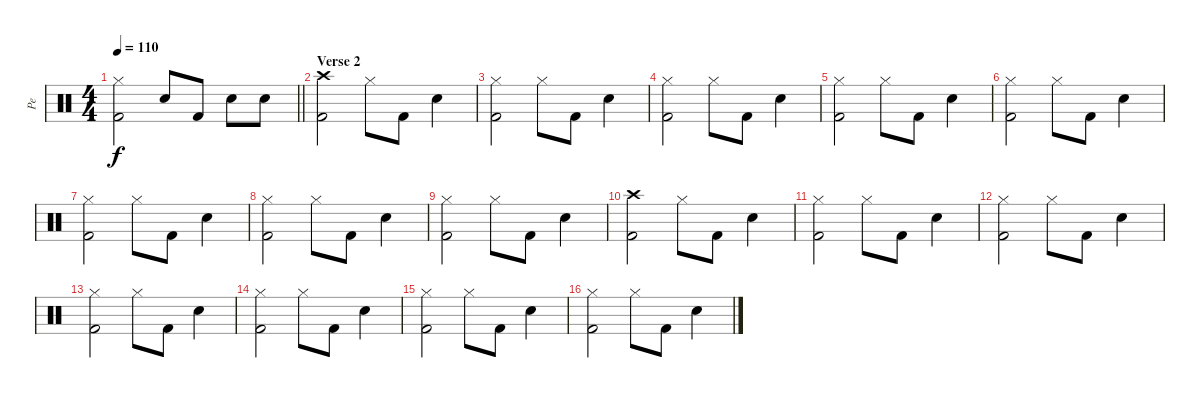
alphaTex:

\track ("Pe" "Pe") {instrument percussion}
\staff {score}
\articulation defaults
\ts (4 4)
\tempo 110
\clef neutral
\barLineRight lightlight
\ks c
("Kick (hit) 2" "Hi-Hat (closed)").2{dy f} "Electric Snare (hit)".8 "Kick (hit) 2".8 "Electric Snare (hit)".8 "Electric Snare (hit)".8 |
\section ("" "Verse 2")
("Kick (hit) 2" "Crash high (hit)").2 "Hi-Hat (closed)".8 "Kick (hit) 2".8 "Electric Snare (hit)".4 |
("Kick (hit) 2" "Hi-Hat (closed)").2 "Hi-Hat (closed)".8 "Kick (hit) 2".8 "Electric Snare (hit)".4 |
("Kick (hit) 2" "Hi-Hat (closed)").2 "Hi-Hat (closed)".8 "Kick (hit) 2".8 "Electric Snare (hit)".4 |
("Kick (hit) 2" "Hi-Hat (closed)").2 "Hi-Hat (closed)".8 "Kick (hit) 2".8 "Electric Snare (hit)".4 |
("Kick (hit) 2" "Hi-Hat (closed)").2 "Hi-Hat (closed)".8 "Kick (hit) 2".8 "Electric Snare (hit)".4 |
("Kick (hit) 2" "Hi-Hat (closed)").2 "Hi-Hat (closed)".8 "Kick (hit) 2".8 "Electric Snare (hit)".4 |
("Kick (hit) 2" "Hi-Hat (closed)").2 "Hi-Hat (closed)".8 "Kick (hit) 2".8 "Electric Snare (hit)".4 |
("Kick (hit) 2" "Hi-Hat (closed)").2 "Hi-Hat (closed)".8 "Kick (hit) 2".8 "Electric Snare (hit)".4 |
("Kick (hit) 2" "Crash high (hit)").2 "Hi-Hat (closed)".8 "Kick (hit) 2".8 "Electric Snare (hit)".4 |
("Kick (hit) 2" "Hi-Hat (closed)").2 "Hi-Hat (closed)".8 "Kick (hit) 2".8 "Electric Snare (hit)".4 |
("Kick (hit) 2" "Hi-Hat (closed)").2 "Hi-Hat (closed)".8 "Kick (hit) 2".8 "Electric Snare (hit)".4 |
("Kick (hit) 2" "Hi-Hat (closed)").2 "Hi-Hat (closed)".8 "Kick (hit) 2".8 "Electric Snare (hit)".4 |
("Kick (hit) 2" "Hi-Hat (closed)").2 "Hi-Hat (closed)".8 "Kick (hit) 2".8 "Electric Snare (hit)".4 |
("Kick (hit) 2" "Hi-Hat (closed)").2 "Hi-Hat (closed)".8 "Kick (hit) 2".8 "Electric Snare (hit)".4 |
("Kick (hit) 2" "Hi-Hat (closed)").2 "Hi-Hat (closed)".8 "Kick (hit) 2".8 "Electric Snare (hit)".4
